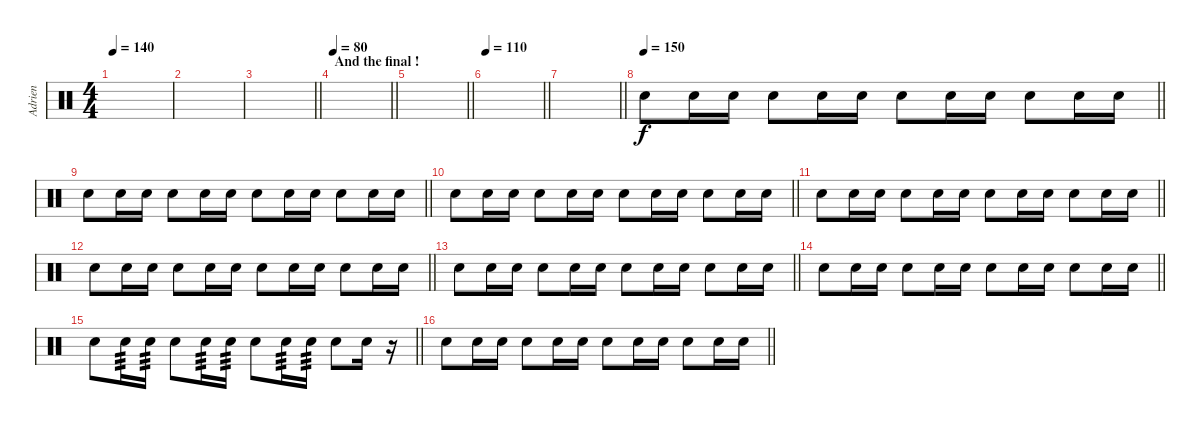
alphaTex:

\track ("Adrien" "Adrien") {instrument percussion}
\staff {score}
\articulation defaults
\ts (4 4)
\tempo 140
\clef neutral
\ks c
|
|
\barLineRight lightlight
|
\section ("" "And the final !")
\tempo 80
\barLineRight lightlight
|
\barLineRight lightlight
|
\tempo 110
\barLineRight lightlight
|
\barLineRight lightlight
|
\tempo 150
\barLineRight lightlight "Snare (hit) 2".8{dy f} "Electric Snare (hit)".16 "Electric Snare (hit)".16 "Snare (hit) 2".8 "Electric Snare (hit)".16 "Electric Snare (hit)".16 "Snare (hit) 2".8 "Electric Snare (hit)".16 "Electric Snare (hit)".16 "Snare (hit) 2".8 "Electric Snare (hit)".16 "Electric Snare (hit)".16
|
\barLineRight lightlight "Snare (hit) 2".8 "Electric Snare (hit)".16 "Electric Snare (hit)".16 "Snare (hit) 2".8 "Electric Snare (hit)".16 "Electric Snare (hit)".16 "Snare (hit) 2".8 "Electric Snare (hit)".16 "Electric Snare (hit)".16 "Snare (hit) 2".8 "Electric Snare (hit)".16 "Electric Snare (hit)".16
|
\barLineRight lightlight "Snare (hit) 2".8 "Electric Snare (hit)".16 "Electric Snare (hit)".16 "Snare (hit) 2".8 "Electric Snare (hit)".16 "Electric Snare (hit)".16 "Snare (hit) 2".8 "Electric Snare (hit)".16 "Electric Snare (hit)".16 "Snare (hit) 2".8 "Electric Snare (hit)".16 "Electric Snare (hit)".16
|
\barLineRight lightlight "Snare (hit) 2".8 "Electric Snare (hit)".16 "Electric Snare (hit)".16 "Snare (hit) 2".8 "Electric Snare (hit)".16 "Electric Snare (hit)".16 "Snare (hit) 2".8 "Electric Snare (hit)".16 "Electric Snare (hit)".16 "Snare (hit) 2".8 "Electric Snare (hit)".16 "Electric Snare (hit)".16
|
\barLineRight lightlight "Snare (hit) 2".8 "Electric Snare (hit)".16 "Electric Snare (hit)".16 "Snare (hit) 2".8 "Electric Snare (hit)".16 "Electric Snare (hit)".16 "Snare (hit) 2".8 "Electric Snare (hit)".16 "Electric Snare (hit)".16 "Snare (hit) 2".8 "Electric Snare (hit)".16 "Electric Snare (hit)".16
|
\barLineRight lightlight "Snare (hit) 2".8 "Electric Snare (hit)".16 "Electric Snare (hit)".16 "Snare (hit) 2".8 "Electric Snare (hit)".16 "Electric Snare (hit)".16 "Snare (hit) 2".8 "Electric Snare (hit)".16 "Electric Snare (hit)".16 "Snare (hit) 2".8 "Electric Snare (hit)".16 "Electric Snare (hit)".16
|
\barLineRight lightlight "Snare (hit) 2".8 "Electric Snare (hit)".16 "Electric Snare (hit)".16 "Snare (hit) 2".8 "Electric Snare (hit)".16 "Electric Snare (hit)".16 "Snare (hit) 2".8 "Electric Snare (hit)".16 "Electric Snare (hit)".16 "Snare (hit) 2".8 "Electric Snare (hit)".16 "Electric Snare (hit)".16
|
\barLineRight lightlight "Snare (hit) 2".8 "Electric Snare (hit)".16{tp 3} "Electric Snare (hit)".16{tp 3} "Snare (hit) 2".8 "Electric Snare (hit)".16{tp 3} "Electric Snare (hit)".16{tp 3} "Snare (hit) 2".8 "Electric Snare (hit)".16{tp 3} "Electric Snare (hit)".16{tp 3} "Snare (hit) 2".8 "Electric Snare (hit)".16
r.16 |
\barLineRight lightlight "Snare (hit) 2".8 "Electric Snare (hit)".16 "Electric Snare (hit)".16 "Snare (hit) 2".8 "Electric Snare (hit)".16 "Electric Snare (hit)".16 "Snare (hit) 2".8 "Electric Snare (hit)".16 "Electric Snare (hit)".16 "Snare (hit) 2".8 "Electric Snare (hit)".16 "Electric Snare (hit)".16
